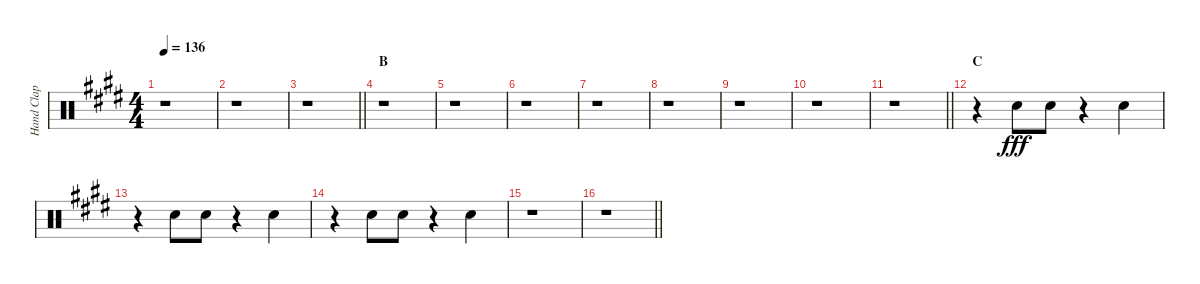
\track ("Hand Clap" "Hand Clap") {instrument percussion}
\staff {score}
\articulation defaults
\ts (4 4)
\tempo 136
\clef neutral
\ks e
r.1{dy fff} |
r.1 |
\barLineRight lightlight
r.1 |
\section ("" "B")
r.1 |
r.1 |
r.1 |
r.1 |
r.1 |
r.1 |
r.1 |
\barLineRight lightlight
r.1 |
\section ("" "C")
r.4 "Hand Clap (hit)".8 "Hand Clap (hit)".8 r.4 "Hand Clap (hit)".4 |
r.4 "Hand Clap (hit)".8 "Hand Clap (hit)".8 r.4 "Hand Clap (hit)".4 |
r.4 "Hand Clap (hit)".8 "Hand Clap (hit)".8 r.4 "Hand Clap (hit)".4 |
r.1 |
\barLineRight lightlight
r.1
